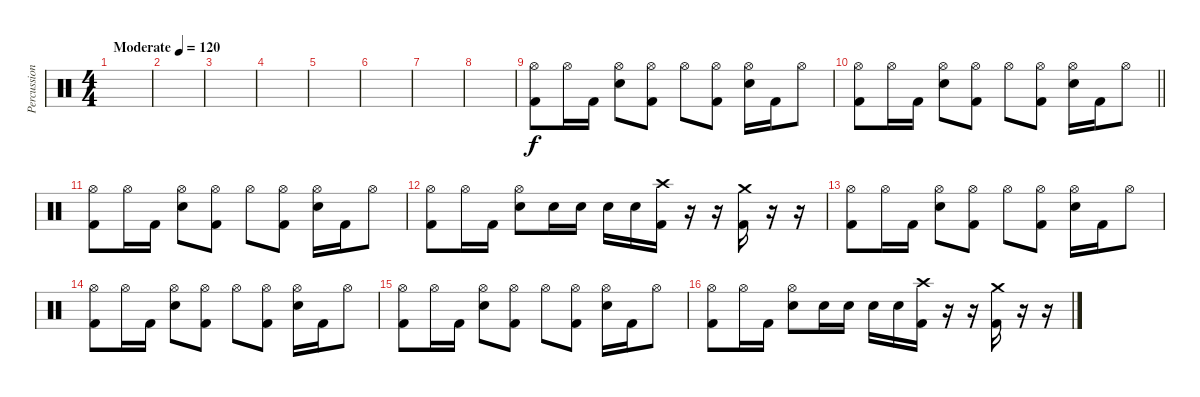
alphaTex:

\track ("Percussion" "Percussion") {instrument percussion}
\staff {score}
\articulation defaults
\ts (4 4)
\tempo (120 "Moderate")
\clef neutral
\ks c
|
|
|
|
|
|
|
|
("Hi-Hat (open)" "Kick (hit) 2").8 "Hi-Hat (open)".16 "Kick (hit) 2".16 ("Hi-Hat (open)" "Electric Snare (hit)").8 ("Hi-Hat (open)" "Kick (hit) 2").8 "Hi-Hat (open)".8 ("Hi-Hat (open)" "Kick (hit) 2").8 ("Hi-Hat (open)" "Electric Snare (hit)").16 "Kick (hit) 2".16 "Hi-Hat (open)".8 |
\barLineRight lightlight
("Hi-Hat (open)" "Kick (hit) 2").8 "Hi-Hat (open)".16 "Kick (hit) 2".16 ("Hi-Hat (open)" "Electric Snare (hit)").8 ("Hi-Hat (open)" "Kick (hit) 2").8 "Hi-Hat (open)".8 ("Hi-Hat (open)" "Kick (hit) 2").8 ("Hi-Hat (open)" "Electric Snare (hit)").16 "Kick (hit) 2".16 "Hi-Hat (open)".8 |
("Hi-Hat (open)" "Kick (hit) 2").8 "Hi-Hat (open)".16 "Kick (hit) 2".16 ("Hi-Hat (open)" "Electric Snare (hit)").8 ("Hi-Hat (open)" "Kick (hit) 2").8 "Hi-Hat (open)".8 ("Hi-Hat (open)" "Kick (hit) 2").8 ("Hi-Hat (open)" "Electric Snare (hit)").16 "Kick (hit) 2".16 "Hi-Hat (open)".8 |
("Hi-Hat (open)" "Kick (hit) 2").8 "Hi-Hat (open)".16 "Kick (hit) 2".16 ("Hi-Hat (open)" "Electric Snare (hit)").8 "Electric Snare (hit)".16 "Electric Snare (hit)".16 "Electric Snare (hit)".16 "Electric Snare (hit)".16 ("Crash high (hit)" "Kick (hit) 2").16 r.16 r.16 ("Crash medium (hit)" "Kick (hit) 2").16 r.16 r.16 |
("Hi-Hat (open)" "Kick (hit) 2").8 "Hi-Hat (open)".16 "Kick (hit) 2".16 ("Hi-Hat (open)" "Electric Snare (hit)").8 ("Hi-Hat (open)" "Kick (hit) 2").8 "Hi-Hat (open)".8 ("Hi-Hat (open)" "Kick (hit) 2").8 ("Hi-Hat (open)" "Electric Snare (hit)").16 "Kick (hit) 2".16 "Hi-Hat (open)".8 |
("Hi-Hat (open)" "Kick (hit) 2").8 "Hi-Hat (open)".16 "Kick (hit) 2".16 ("Hi-Hat (open)" "Electric Snare (hit)").8 ("Hi-Hat (open)" "Kick (hit) 2").8 "Hi-Hat (open)".8 ("Hi-Hat (open)" "Kick (hit) 2").8 ("Hi-Hat (open)" "Electric Snare (hit)").16 "Kick (hit) 2".16 "Hi-Hat (open)".8 |
("Hi-Hat (open)" "Kick (hit) 2").8 "Hi-Hat (open)".16 "Kick (hit) 2".16 ("Hi-Hat (open)" "Electric Snare (hit)").8 ("Hi-Hat (open)" "Kick (hit) 2").8 "Hi-Hat (open)".8 ("Hi-Hat (open)" "Kick (hit) 2").8 ("Hi-Hat (open)" "Electric Snare (hit)").16 "Kick (hit) 2".16 "Hi-Hat (open)".8 |
("Hi-Hat (open)" "Kick (hit) 2").8 "Hi-Hat (open)".16 "Kick (hit) 2".16 ("Hi-Hat (open)" "Electric Snare (hit)").8 "Electric Snare (hit)".16 "Electric Snare (hit)".16 "Electric Snare (hit)".16 "Electric Snare (hit)".16 ("Crash high (hit)" "Kick (hit) 2").16 r.16 r.16 ("Crash medium (hit)" "Kick (hit) 2").16 r.16 r.16
